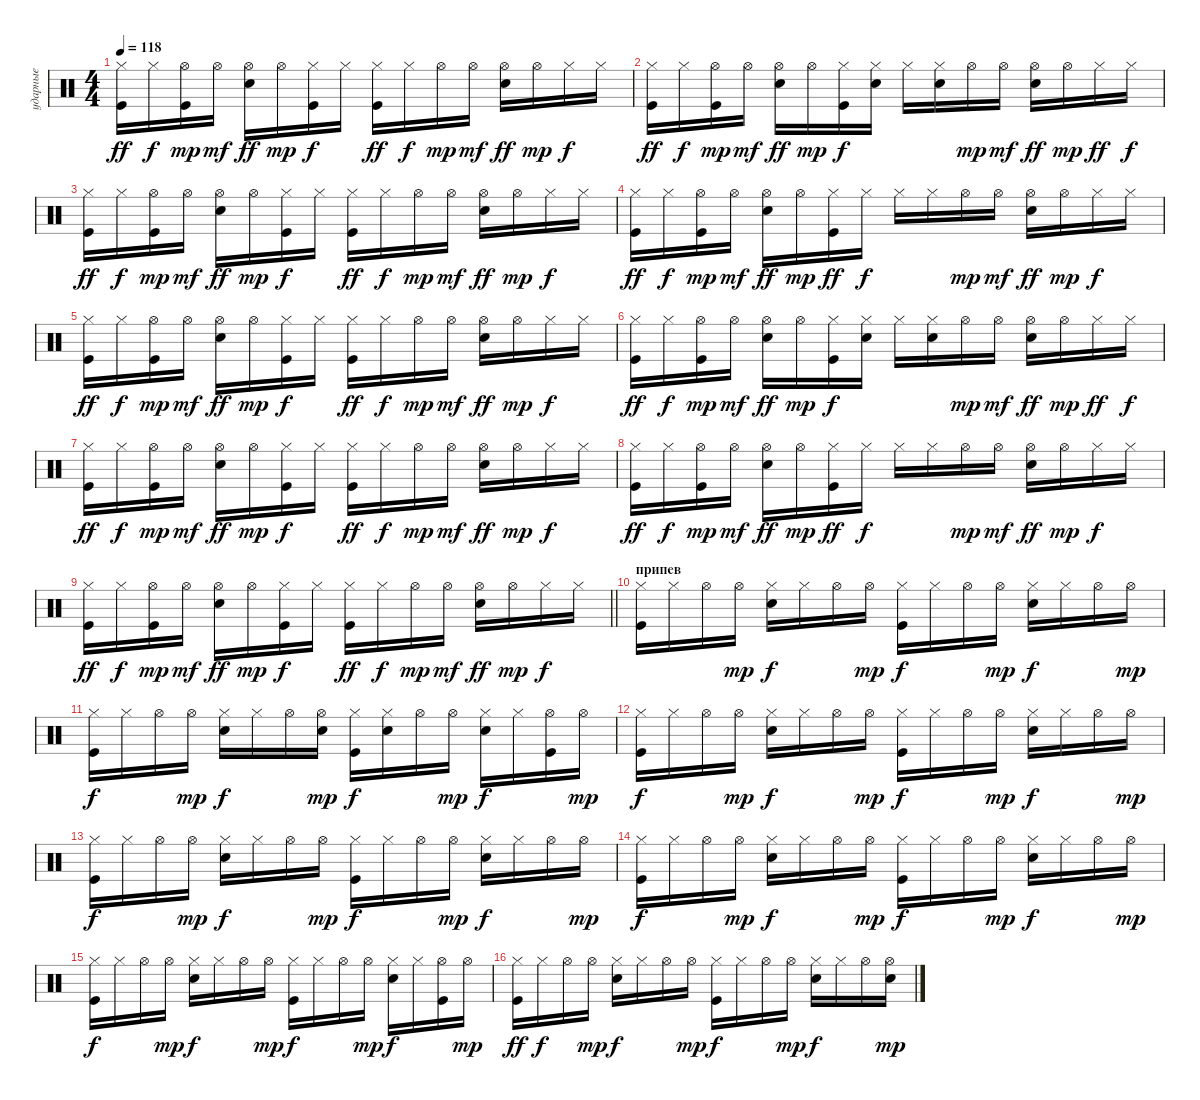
\track ("ударные" "ударные") {instrument percussion}
\staff {score}
\articulation defaults
\ts (4 4)
\tempo 118
\clef neutral
\ks c
("Kick (hit)" "Hi-Hat (closed)").16{dy ff} "Hi-Hat (closed)".16{dy f} ("Kick (hit)" "Hi-Hat (open)").16{dy mp} "Hi-Hat (open)".16{dy mf} ("Electric Snare (hit)" "Hi-Hat (open)").16{dy ff} "Hi-Hat (open)".16{dy mp} ("Kick (hit)" "Hi-Hat (closed)").16{dy f} "Hi-Hat (closed)".16 ("Kick (hit)" "Hi-Hat (closed)").16{dy ff} "Hi-Hat (closed)".16{dy f} "Hi-Hat (open)".16{dy mp} "Hi-Hat (open)".16{dy mf} ("Electric Snare (hit)" "Hi-Hat (open)").16{dy ff} "Hi-Hat (open)".16{dy mp} "Hi-Hat (closed)".16{dy f} "Hi-Hat (closed)".16 |
("Kick (hit)" "Hi-Hat (closed)").16{dy ff} "Hi-Hat (closed)".16{dy f} ("Kick (hit)" "Hi-Hat (open)").16{dy mp} "Hi-Hat (open)".16{dy mf} ("Electric Snare (hit)" "Hi-Hat (open)").16{dy ff} "Hi-Hat (open)".16{dy mp} ("Kick (hit)" "Hi-Hat (closed)").16{dy f} ("Electric Snare (hit)" "Hi-Hat (closed)").16 "Hi-Hat (closed)".16 ("Electric Snare (hit)" "Hi-Hat (closed)").16 "Hi-Hat (open)".16{dy mp} "Hi-Hat (open)".16{dy mf} ("Hi-Hat (open)" "Electric Snare (hit)").16{dy ff} "Hi-Hat (open)".16{dy mp} "Hi-Hat (closed)".16{dy ff} "Hi-Hat (closed)".16{dy f} |
("Kick (hit)" "Hi-Hat (closed)").16{dy ff} "Hi-Hat (closed)".16{dy f} ("Kick (hit)" "Hi-Hat (open)").16{dy mp} "Hi-Hat (open)".16{dy mf} ("Electric Snare (hit)" "Hi-Hat (open)").16{dy ff} "Hi-Hat (open)".16{dy mp} ("Kick (hit)" "Hi-Hat (closed)").16{dy f} "Hi-Hat (closed)".16 ("Kick (hit)" "Hi-Hat (closed)").16{dy ff} "Hi-Hat (closed)".16{dy f} "Hi-Hat (open)".16{dy mp} "Hi-Hat (open)".16{dy mf} ("Electric Snare (hit)" "Hi-Hat (open)").16{dy ff} "Hi-Hat (open)".16{dy mp} "Hi-Hat (closed)".16{dy f} "Hi-Hat (closed)".16 |
("Kick (hit)" "Hi-Hat (closed)").16{dy ff} "Hi-Hat (closed)".16{dy f} ("Kick (hit)" "Hi-Hat (open)").16{dy mp} "Hi-Hat (open)".16{dy mf} ("Electric Snare (hit)" "Hi-Hat (open)").16{dy ff} "Hi-Hat (open)".16{dy mp} ("Kick (hit)" "Hi-Hat (closed)").16{dy ff} "Hi-Hat (closed)".16{dy f} "Hi-Hat (closed)".16 "Hi-Hat (closed)".16 "Hi-Hat (open)".16{dy mp} "Hi-Hat (open)".16{dy mf} ("Electric Snare (hit)" "Hi-Hat (open)").16{dy ff} "Hi-Hat (open)".16{dy mp} "Hi-Hat (closed)".16{dy f} "Hi-Hat (closed)".16 |
("Kick (hit)" "Hi-Hat (closed)").16{dy ff} "Hi-Hat (closed)".16{dy f} ("Kick (hit)" "Hi-Hat (open)").16{dy mp} "Hi-Hat (open)".16{dy mf} ("Electric Snare (hit)" "Hi-Hat (open)").16{dy ff} "Hi-Hat (open)".16{dy mp} ("Kick (hit)" "Hi-Hat (closed)").16{dy f} "Hi-Hat (closed)".16 ("Kick (hit)" "Hi-Hat (closed)").16{dy ff} "Hi-Hat (closed)".16{dy f} "Hi-Hat (open)".16{dy mp} "Hi-Hat (open)".16{dy mf} ("Electric Snare (hit)" "Hi-Hat (open)").16{dy ff} "Hi-Hat (open)".16{dy mp} "Hi-Hat (closed)".16{dy f} "Hi-Hat (closed)".16 |
("Kick (hit)" "Hi-Hat (closed)").16{dy ff} "Hi-Hat (closed)".16{dy f} ("Kick (hit)" "Hi-Hat (open)").16{dy mp} "Hi-Hat (open)".16{dy mf} ("Electric Snare (hit)" "Hi-Hat (open)").16{dy ff} "Hi-Hat (open)".16{dy mp} ("Kick (hit)" "Hi-Hat (closed)").16{dy f} ("Electric Snare (hit)" "Hi-Hat (closed)").16 "Hi-Hat (closed)".16 ("Electric Snare (hit)" "Hi-Hat (closed)").16 "Hi-Hat (open)".16{dy mp} "Hi-Hat (open)".16{dy mf} ("Hi-Hat (open)" "Electric Snare (hit)").16{dy ff} "Hi-Hat (open)".16{dy mp} "Hi-Hat (closed)".16{dy ff} "Hi-Hat (closed)".16{dy f} |
("Kick (hit)" "Hi-Hat (closed)").16{dy ff} "Hi-Hat (closed)".16{dy f} ("Kick (hit)" "Hi-Hat (open)").16{dy mp} "Hi-Hat (open)".16{dy mf} ("Electric Snare (hit)" "Hi-Hat (open)").16{dy ff} "Hi-Hat (open)".16{dy mp} ("Kick (hit)" "Hi-Hat (closed)").16{dy f} "Hi-Hat (closed)".16 ("Kick (hit)" "Hi-Hat (closed)").16{dy ff} "Hi-Hat (closed)".16{dy f} "Hi-Hat (open)".16{dy mp} "Hi-Hat (open)".16{dy mf} ("Electric Snare (hit)" "Hi-Hat (open)").16{dy ff} "Hi-Hat (open)".16{dy mp} "Hi-Hat (closed)".16{dy f} "Hi-Hat (closed)".16 |
("Kick (hit)" "Hi-Hat (closed)").16{dy ff} "Hi-Hat (closed)".16{dy f} ("Kick (hit)" "Hi-Hat (open)").16{dy mp} "Hi-Hat (open)".16{dy mf} ("Electric Snare (hit)" "Hi-Hat (open)").16{dy ff} "Hi-Hat (open)".16{dy mp} ("Kick (hit)" "Hi-Hat (closed)").16{dy ff} "Hi-Hat (closed)".16{dy f} "Hi-Hat (closed)".16 "Hi-Hat (closed)".16 "Hi-Hat (open)".16{dy mp} "Hi-Hat (open)".16{dy mf} ("Electric Snare (hit)" "Hi-Hat (open)").16{dy ff} "Hi-Hat (open)".16{dy mp} "Hi-Hat (closed)".16{dy f} "Hi-Hat (closed)".16 |
\barLineRight lightlight
("Kick (hit)" "Hi-Hat (closed)").16{dy ff} "Hi-Hat (closed)".16{dy f} ("Kick (hit)" "Hi-Hat (open)").16{dy mp} "Hi-Hat (open)".16{dy mf} ("Electric Snare (hit)" "Hi-Hat (open)").16{dy ff} "Hi-Hat (open)".16{dy mp} ("Kick (hit)" "Hi-Hat (closed)").16{dy f} "Hi-Hat (closed)".16 ("Kick (hit)" "Hi-Hat (closed)").16{dy ff} "Hi-Hat (closed)".16{dy f} "Hi-Hat (open)".16{dy mp} "Hi-Hat (open)".16{dy mf} ("Electric Snare (hit)" "Hi-Hat (open)").16{dy ff} "Hi-Hat (open)".16{dy mp} "Hi-Hat (closed)".16{dy f} "Hi-Hat (closed)".16 |
\section ("" "припев")
("Hi-Hat (closed)" "Kick (hit)").16 "Hi-Hat (closed)".16 "Hi-Hat (open)".16 "Hi-Hat (open)".16{dy mp} ("Hi-Hat (closed)" "Electric Snare (hit)").16{dy f} "Hi-Hat (closed)".16 "Hi-Hat (open)".16 "Hi-Hat (open)".16{dy mp} ("Kick (hit)" "Hi-Hat (closed)").16{dy f} "Hi-Hat (closed)".16 "Hi-Hat (open)".16 "Hi-Hat (open)".16{dy mp} ("Hi-Hat (closed)" "Electric Snare (hit)").16{dy f} "Hi-Hat (closed)".16 "Hi-Hat (open)".16 "Hi-Hat (open)".16{dy mp} |
("Hi-Hat (closed)" "Kick (hit)").16{dy f} "Hi-Hat (closed)".16 "Hi-Hat (open)".16 "Hi-Hat (open)".16{dy mp} ("Hi-Hat (closed)" "Electric Snare (hit)").16{dy f} "Hi-Hat (closed)".16 "Hi-Hat (open)".16 ("Electric Snare (hit)" "Hi-Hat (open)").16{dy mp} ("Kick (hit)" "Hi-Hat (closed)").16{dy f} ("Electric Snare (hit)" "Hi-Hat (closed)").16 "Hi-Hat (open)".16 "Hi-Hat (open)".16{dy mp} ("Hi-Hat (closed)" "Electric Snare (hit)").16{dy f} "Hi-Hat (closed)".16 ("Kick (hit)" "Hi-Hat (open)").16 "Hi-Hat (open)".16{dy mp} |
("Hi-Hat (closed)" "Kick (hit)").16{dy f} "Hi-Hat (closed)".16 "Hi-Hat (open)".16 "Hi-Hat (open)".16{dy mp} ("Hi-Hat (closed)" "Electric Snare (hit)").16{dy f} "Hi-Hat (closed)".16 "Hi-Hat (open)".16 "Hi-Hat (open)".16{dy mp} ("Kick (hit)" "Hi-Hat (closed)").16{dy f} "Hi-Hat (closed)".16 "Hi-Hat (open)".16 "Hi-Hat (open)".16{dy mp} ("Hi-Hat (closed)" "Electric Snare (hit)").16{dy f} "Hi-Hat (closed)".16 "Hi-Hat (open)".16 "Hi-Hat (open)".16{dy mp} |
("Hi-Hat (closed)" "Kick (hit)").16{dy f} "Hi-Hat (closed)".16 "Hi-Hat (open)".16 "Hi-Hat (open)".16{dy mp} ("Hi-Hat (closed)" "Electric Snare (hit)").16{dy f} "Hi-Hat (closed)".16 "Hi-Hat (open)".16 "Hi-Hat (open)".16{dy mp} ("Kick (hit)" "Hi-Hat (closed)").16{dy f} "Hi-Hat (closed)".16 "Hi-Hat (open)".16 "Hi-Hat (open)".16{dy mp} ("Hi-Hat (closed)" "Electric Snare (hit)").16{dy f} "Hi-Hat (closed)".16 "Hi-Hat (open)".16 "Hi-Hat (open)".16{dy mp} |
("Hi-Hat (closed)" "Kick (hit)").16{dy f} "Hi-Hat (closed)".16 "Hi-Hat (open)".16 "Hi-Hat (open)".16{dy mp} ("Hi-Hat (closed)" "Electric Snare (hit)").16{dy f} "Hi-Hat (closed)".16 "Hi-Hat (open)".16 "Hi-Hat (open)".16{dy mp} ("Kick (hit)" "Hi-Hat (closed)").16{dy f} "Hi-Hat (closed)".16 "Hi-Hat (open)".16 "Hi-Hat (open)".16{dy mp} ("Hi-Hat (closed)" "Electric Snare (hit)").16{dy f} "Hi-Hat (closed)".16 "Hi-Hat (open)".16 "Hi-Hat (open)".16{dy mp} |
("Hi-Hat (closed)" "Kick (hit)").16{dy f} "Hi-Hat (closed)".16 "Hi-Hat (open)".16 "Hi-Hat (open)".16{dy mp} ("Electric Snare (hit)" "Hi-Hat (closed)").16{dy f} "Hi-Hat (closed)".16 "Hi-Hat (open)".16 "Hi-Hat (open)".16{dy mp} ("Kick (hit)" "Hi-Hat (closed)").16{dy f} "Hi-Hat (closed)".16 "Hi-Hat (open)".16 "Hi-Hat (open)".16{dy mp} ("Hi-Hat (closed)" "Electric Snare (hit)").16{dy f} "Hi-Hat (closed)".16 ("Kick (hit)" "Hi-Hat (open)").16 "Hi-Hat (open)".16{dy mp} |
("Hi-Hat (closed)" "Kick (hit)").16{dy ff} "Hi-Hat (closed)".16{dy f} "Hi-Hat (open)".16 "Hi-Hat (open)".16{dy mp} ("Hi-Hat (closed)" "Electric Snare (hit)").16{dy f} "Hi-Hat (closed)".16 "Hi-Hat (open)".16 "Hi-Hat (open)".16{dy mp} ("Kick (hit)" "Hi-Hat (closed)").16{dy f} "Hi-Hat (closed)".16 "Hi-Hat (open)".16 "Hi-Hat (open)".16{dy mp} ("Hi-Hat (closed)" "Electric Snare (hit)").16{dy f} "Hi-Hat (closed)".16 "Hi-Hat (open)".16 ("Electric Snare (hit)" "Hi-Hat (open)").16{dy mp}
